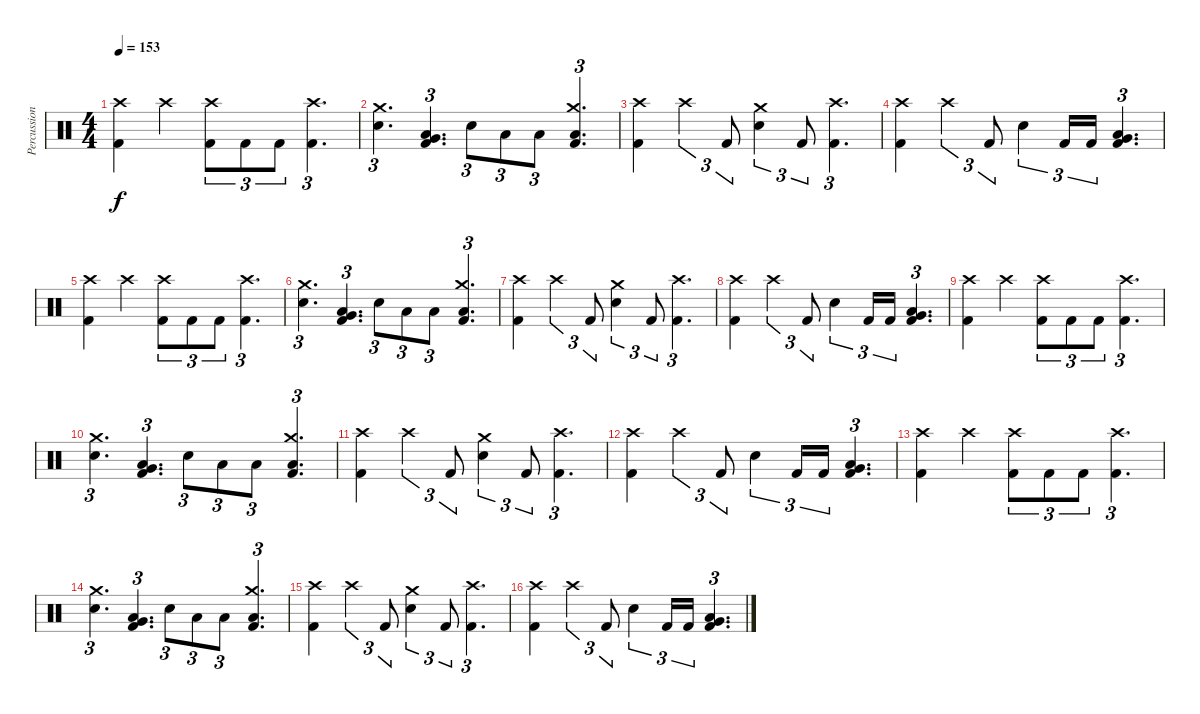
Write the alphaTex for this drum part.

\track ("Percussion" "Percussion") {instrument percussion}
\staff {score}
\articulation defaults
\ts (4 4)
\tempo 153
\clef neutral
\ks c
("Crash high (hit)" "Kick (hit) 2").4{dy f} "Crash high (hit)".4 ("Crash high (hit)" "Kick (hit) 2").8{tu (3 2)} "Kick (hit) 2".8{tu (3 2)} "Kick (hit) 2".8{tu (3 2)} ("Crash high (hit)" "Kick (hit) 2").4{d tu (3 2)} |
("Crash medium (hit)" "Snare (hit) 2").4{d tu (3 2)} ("Low Floor Tom (hit)" "Very Low Tom (hit)" "Kick (hit) 2").4{d tu (3 2)} "Snare (hit) 2".8{tu (3 2)} "Low Tom (hit)".8{tu (3 2)} "Low Tom (hit)".8{tu (3 2)} ("Crash medium (hit)" "Low Floor Tom (hit)" "Kick (hit) 2").4{d tu (3 2)} |
("Crash high (hit)" "Kick (hit) 2").4 "Crash high (hit)".4{tu (3 2)} "Kick (hit) 2".8{tu (3 2)} ("Crash medium (hit)" "Snare (hit) 2").4{tu (3 2)} "Kick (hit) 2".8{tu (3 2)} ("Crash high (hit)" "Kick (hit) 2").4{d tu (3 2)} |
("Crash high (hit)" "Kick (hit) 2").4 "Crash high (hit)".4{tu (3 2)} "Kick (hit) 2".8{tu (3 2)} "Snare (hit) 2".4{tu (3 2)} "Kick (hit) 2".16{tu (3 2)} "Kick (hit) 2".16{tu (3 2)} ("Kick (hit) 2" "Low Floor Tom (hit)" "Very Low Tom (hit)").4{d tu (3 2)} |
("Crash high (hit)" "Kick (hit) 2").4 "Crash high (hit)".4 ("Crash high (hit)" "Kick (hit) 2").8{tu (3 2)} "Kick (hit) 2".8{tu (3 2)} "Kick (hit) 2".8{tu (3 2)} ("Crash high (hit)" "Kick (hit) 2").4{d tu (3 2)} |
("Crash medium (hit)" "Snare (hit) 2").4{d tu (3 2)} ("Low Floor Tom (hit)" "Very Low Tom (hit)" "Kick (hit) 2").4{d tu (3 2)} "Snare (hit) 2".8{tu (3 2)} "Low Tom (hit)".8{tu (3 2)} "Low Tom (hit)".8{tu (3 2)} ("Crash medium (hit)" "Low Floor Tom (hit)" "Kick (hit) 2").4{d tu (3 2)} |
("Crash high (hit)" "Kick (hit) 2").4 "Crash high (hit)".4{tu (3 2)} "Kick (hit) 2".8{tu (3 2)} ("Crash medium (hit)" "Snare (hit) 2").4{tu (3 2)} "Kick (hit) 2".8{tu (3 2)} ("Crash high (hit)" "Kick (hit) 2").4{d tu (3 2)} |
("Crash high (hit)" "Kick (hit) 2").4 "Crash high (hit)".4{tu (3 2)} "Kick (hit) 2".8{tu (3 2)} "Snare (hit) 2".4{tu (3 2)} "Kick (hit) 2".16{tu (3 2)} "Kick (hit) 2".16{tu (3 2)} ("Kick (hit) 2" "Low Floor Tom (hit)" "Very Low Tom (hit)").4{d tu (3 2)} |
("Crash high (hit)" "Kick (hit) 2").4 "Crash high (hit)".4 ("Crash high (hit)" "Kick (hit) 2").8{tu (3 2)} "Kick (hit) 2".8{tu (3 2)} "Kick (hit) 2".8{tu (3 2)} ("Crash high (hit)" "Kick (hit) 2").4{d tu (3 2)} |
("Crash medium (hit)" "Snare (hit) 2").4{d tu (3 2)} ("Low Floor Tom (hit)" "Very Low Tom (hit)" "Kick (hit) 2").4{d tu (3 2)} "Snare (hit) 2".8{tu (3 2)} "Low Tom (hit)".8{tu (3 2)} "Low Tom (hit)".8{tu (3 2)} ("Crash medium (hit)" "Low Floor Tom (hit)" "Kick (hit) 2").4{d tu (3 2)} |
("Crash high (hit)" "Kick (hit) 2").4 "Crash high (hit)".4{tu (3 2)} "Kick (hit) 2".8{tu (3 2)} ("Crash medium (hit)" "Snare (hit) 2").4{tu (3 2)} "Kick (hit) 2".8{tu (3 2)} ("Crash high (hit)" "Kick (hit) 2").4{d tu (3 2)} |
("Crash high (hit)" "Kick (hit) 2").4 "Crash high (hit)".4{tu (3 2)} "Kick (hit) 2".8{tu (3 2)} "Snare (hit) 2".4{tu (3 2)} "Kick (hit) 2".16{tu (3 2)} "Kick (hit) 2".16{tu (3 2)} ("Kick (hit) 2" "Low Floor Tom (hit)" "Very Low Tom (hit)").4{d tu (3 2)} |
("Crash high (hit)" "Kick (hit) 2").4 "Crash high (hit)".4 ("Crash high (hit)" "Kick (hit) 2").8{tu (3 2)} "Kick (hit) 2".8{tu (3 2)} "Kick (hit) 2".8{tu (3 2)} ("Crash high (hit)" "Kick (hit) 2").4{d tu (3 2)} |
("Crash medium (hit)" "Snare (hit) 2").4{d tu (3 2)} ("Low Floor Tom (hit)" "Very Low Tom (hit)" "Kick (hit) 2").4{d tu (3 2)} "Snare (hit) 2".8{tu (3 2)} "Low Tom (hit)".8{tu (3 2)} "Low Tom (hit)".8{tu (3 2)} ("Crash medium (hit)" "Low Floor Tom (hit)" "Kick (hit) 2").4{d tu (3 2)} |
("Crash high (hit)" "Kick (hit) 2").4 "Crash high (hit)".4{tu (3 2)} "Kick (hit) 2".8{tu (3 2)} ("Crash medium (hit)" "Snare (hit) 2").4{tu (3 2)} "Kick (hit) 2".8{tu (3 2)} ("Crash high (hit)" "Kick (hit) 2").4{d tu (3 2)} |
("Crash high (hit)" "Kick (hit) 2").4 "Crash high (hit)".4{tu (3 2)} "Kick (hit) 2".8{tu (3 2)} "Snare (hit) 2".4{tu (3 2)} "Kick (hit) 2".16{tu (3 2)} "Kick (hit) 2".16{tu (3 2)} ("Kick (hit) 2" "Low Floor Tom (hit)" "Very Low Tom (hit)").4{d tu (3 2)}
